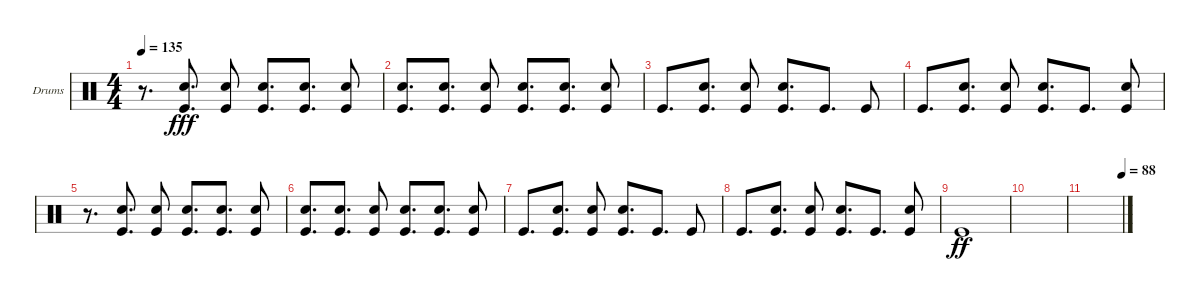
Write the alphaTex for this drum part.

\defaultSystemsLayout 4
\bracketExtendMode groupsimilarinstruments
\firstSystemTrackNameOrientation horizontal
\otherSystemsTrackNameOrientation horizontal
\track ("Matt Helders" "Drums") {instrument percussion}
\staff {score}
\articulation defaults
\ts (4 4)
\tempo 135
\clef neutral
\ks c
r.8{d dy fff} ("Snare (hit) 2" "Kick (hit)").8{d} ("Snare (hit) 2" "Kick (hit)").8 ("Snare (hit) 2" "Kick (hit)").8{d} ("Snare (hit) 2" "Kick (hit)").8{d} ("Snare (hit) 2" "Kick (hit)").8 |
("Snare (hit) 2" "Kick (hit)").8{d} ("Snare (hit) 2" "Kick (hit)").8{d} ("Snare (hit) 2" "Kick (hit)").8 ("Snare (hit) 2" "Kick (hit)").8{d} ("Snare (hit) 2" "Kick (hit)").8{d} ("Snare (hit) 2" "Kick (hit)").8 |
"Kick (hit)".8{d} ("Snare (hit) 2" "Kick (hit)").8{d} ("Snare (hit) 2" "Kick (hit)").8 ("Snare (hit) 2" "Kick (hit)").8{d} "Kick (hit)".8{d} "Kick (hit)".8 |
"Kick (hit)".8{d} ("Snare (hit) 2" "Kick (hit)").8{d} ("Snare (hit) 2" "Kick (hit)").8 ("Snare (hit) 2" "Kick (hit)").8{d} "Kick (hit)".8{d} ("Kick (hit)" "Snare (hit) 2").8 |
r.8{d} ("Snare (hit) 2" "Kick (hit)").8{d} ("Snare (hit) 2" "Kick (hit)").8 ("Snare (hit) 2" "Kick (hit)").8{d} ("Snare (hit) 2" "Kick (hit)").8{d} ("Snare (hit) 2" "Kick (hit)").8 |
("Snare (hit) 2" "Kick (hit)").8{d} ("Snare (hit) 2" "Kick (hit)").8{d} ("Snare (hit) 2" "Kick (hit)").8 ("Snare (hit) 2" "Kick (hit)").8{d} ("Snare (hit) 2" "Kick (hit)").8{d} ("Snare (hit) 2" "Kick (hit)").8 |
"Kick (hit)".8{d} ("Snare (hit) 2" "Kick (hit)").8{d} ("Snare (hit) 2" "Kick (hit)").8 ("Snare (hit) 2" "Kick (hit)").8{d} "Kick (hit)".8{d} "Kick (hit)".8 |
"Kick (hit)".8{d} ("Snare (hit) 2" "Kick (hit)").8{d} ("Snare (hit) 2" "Kick (hit)").8 ("Snare (hit) 2" "Kick (hit)").8{d} "Kick (hit)".8{d} ("Kick (hit)" "Snare (hit) 2").8 |
"Kick (hit)".1{dy ff} |
|
\tempo (88 1)
